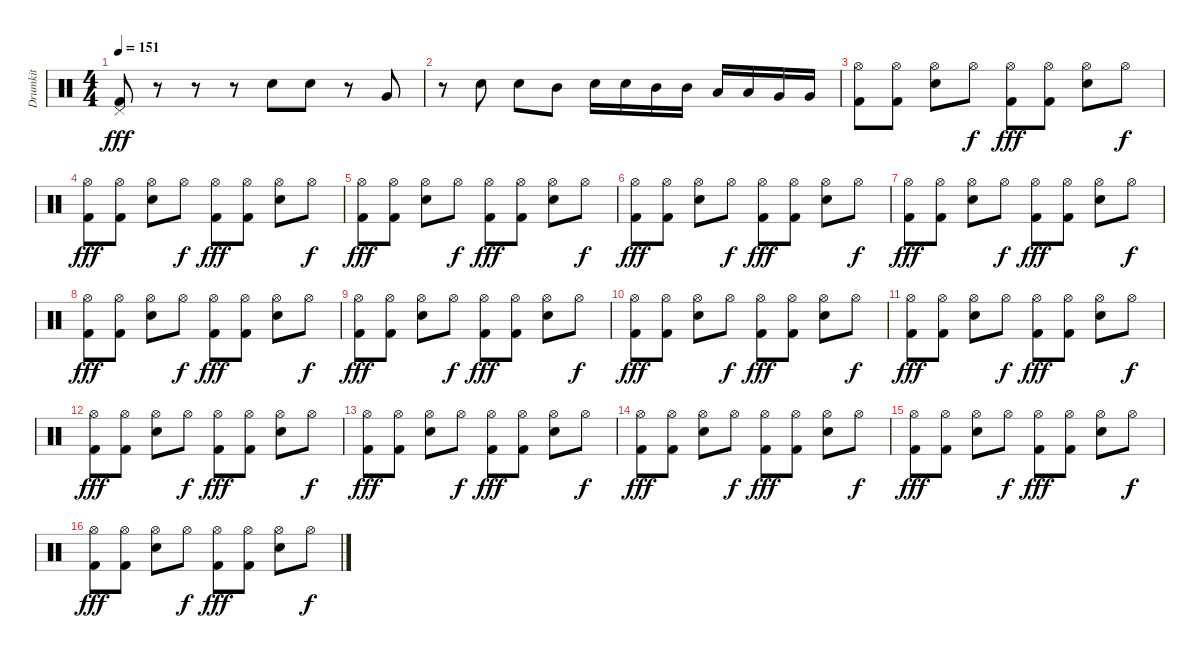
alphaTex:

\track ("Drumkit" "Drumkit") {instrument percussion}
\staff {score}
\articulation defaults
\ts (4 4)
\tempo 151
\clef neutral
\ks c
("Kick (hit) 2" "Pedal Hi-Hat (hit)").8{dy fff} r.8 r.8 r.8 "Electric Snare (hit)".8 "Electric Snare (hit)".8 r.8 "Very Low Tom (hit)".8 |
r.8 "Electric Snare (hit)".8 "Electric Snare (hit)".8 "Mid Tom (hit)".8 "Electric Snare (hit)".16 "Electric Snare (hit)".16 "Mid Tom (hit)".16 "Mid Tom (hit)".16 "Low Tom (hit)".16 "Low Tom (hit)".16 "Very Low Tom (hit)".16 "Very Low Tom (hit)".16 |
("Kick (hit) 2" "Hi-Hat (open)").8 ("Hi-Hat (open)" "Kick (hit) 2").8 ("Electric Snare (hit)" "Hi-Hat (open)").8 "Hi-Hat (open)".8{dy f} ("Kick (hit) 2" "Hi-Hat (open)").8{dy fff} ("Kick (hit) 2" "Hi-Hat (open)").8 ("Electric Snare (hit)" "Hi-Hat (open)").8 "Hi-Hat (open)".8{dy f} |
("Kick (hit) 2" "Hi-Hat (open)").8{dy fff} ("Hi-Hat (open)" "Kick (hit) 2").8 ("Electric Snare (hit)" "Hi-Hat (open)").8 "Hi-Hat (open)".8{dy f} ("Kick (hit) 2" "Hi-Hat (open)").8{dy fff} ("Kick (hit) 2" "Hi-Hat (open)").8 ("Electric Snare (hit)" "Hi-Hat (open)").8 "Hi-Hat (open)".8{dy f} |
("Kick (hit) 2" "Hi-Hat (open)").8{dy fff} ("Hi-Hat (open)" "Kick (hit) 2").8 ("Electric Snare (hit)" "Hi-Hat (open)").8 "Hi-Hat (open)".8{dy f} ("Kick (hit) 2" "Hi-Hat (open)").8{dy fff} ("Kick (hit) 2" "Hi-Hat (open)").8 ("Electric Snare (hit)" "Hi-Hat (open)").8 "Hi-Hat (open)".8{dy f} |
("Kick (hit) 2" "Hi-Hat (open)").8{dy fff} ("Hi-Hat (open)" "Kick (hit) 2").8 ("Electric Snare (hit)" "Hi-Hat (open)").8 "Hi-Hat (open)".8{dy f} ("Kick (hit) 2" "Hi-Hat (open)").8{dy fff} ("Kick (hit) 2" "Hi-Hat (open)").8 ("Electric Snare (hit)" "Hi-Hat (open)").8 "Hi-Hat (open)".8{dy f} |
("Kick (hit) 2" "Hi-Hat (open)").8{dy fff} ("Hi-Hat (open)" "Kick (hit) 2").8 ("Electric Snare (hit)" "Hi-Hat (open)").8 "Hi-Hat (open)".8{dy f} ("Kick (hit) 2" "Hi-Hat (open)").8{dy fff} ("Kick (hit) 2" "Hi-Hat (open)").8 ("Electric Snare (hit)" "Hi-Hat (open)").8 "Hi-Hat (open)".8{dy f} |
("Kick (hit) 2" "Hi-Hat (open)").8{dy fff} ("Hi-Hat (open)" "Kick (hit) 2").8 ("Electric Snare (hit)" "Hi-Hat (open)").8 "Hi-Hat (open)".8{dy f} ("Kick (hit) 2" "Hi-Hat (open)").8{dy fff} ("Kick (hit) 2" "Hi-Hat (open)").8 ("Electric Snare (hit)" "Hi-Hat (open)").8 "Hi-Hat (open)".8{dy f} |
("Kick (hit) 2" "Hi-Hat (open)").8{dy fff} ("Hi-Hat (open)" "Kick (hit) 2").8 ("Electric Snare (hit)" "Hi-Hat (open)").8 "Hi-Hat (open)".8{dy f} ("Kick (hit) 2" "Hi-Hat (open)").8{dy fff} ("Kick (hit) 2" "Hi-Hat (open)").8 ("Electric Snare (hit)" "Hi-Hat (open)").8 "Hi-Hat (open)".8{dy f} |
("Kick (hit) 2" "Hi-Hat (open)").8{dy fff} ("Hi-Hat (open)" "Kick (hit) 2").8 ("Electric Snare (hit)" "Hi-Hat (open)").8 "Hi-Hat (open)".8{dy f} ("Kick (hit) 2" "Hi-Hat (open)").8{dy fff} ("Kick (hit) 2" "Hi-Hat (open)").8 ("Electric Snare (hit)" "Hi-Hat (open)").8 "Hi-Hat (open)".8{dy f} |
("Kick (hit) 2" "Hi-Hat (open)").8{dy fff} ("Hi-Hat (open)" "Kick (hit) 2").8 ("Electric Snare (hit)" "Hi-Hat (open)").8 "Hi-Hat (open)".8{dy f} ("Kick (hit) 2" "Hi-Hat (open)").8{dy fff} ("Kick (hit) 2" "Hi-Hat (open)").8 ("Electric Snare (hit)" "Hi-Hat (open)").8 "Hi-Hat (open)".8{dy f} |
("Kick (hit) 2" "Hi-Hat (open)").8{dy fff} ("Hi-Hat (open)" "Kick (hit) 2").8 ("Electric Snare (hit)" "Hi-Hat (open)").8 "Hi-Hat (open)".8{dy f} ("Kick (hit) 2" "Hi-Hat (open)").8{dy fff} ("Kick (hit) 2" "Hi-Hat (open)").8 ("Electric Snare (hit)" "Hi-Hat (open)").8 "Hi-Hat (open)".8{dy f} |
("Kick (hit) 2" "Hi-Hat (open)").8{dy fff} ("Hi-Hat (open)" "Kick (hit) 2").8 ("Electric Snare (hit)" "Hi-Hat (open)").8 "Hi-Hat (open)".8{dy f} ("Kick (hit) 2" "Hi-Hat (open)").8{dy fff} ("Kick (hit) 2" "Hi-Hat (open)").8 ("Electric Snare (hit)" "Hi-Hat (open)").8 "Hi-Hat (open)".8{dy f} |
("Kick (hit) 2" "Hi-Hat (open)").8{dy fff} ("Hi-Hat (open)" "Kick (hit) 2").8 ("Electric Snare (hit)" "Hi-Hat (open)").8 "Hi-Hat (open)".8{dy f} ("Kick (hit) 2" "Hi-Hat (open)").8{dy fff} ("Kick (hit) 2" "Hi-Hat (open)").8 ("Electric Snare (hit)" "Hi-Hat (open)").8 "Hi-Hat (open)".8{dy f} |
("Kick (hit) 2" "Hi-Hat (open)").8{dy fff} ("Hi-Hat (open)" "Kick (hit) 2").8 ("Electric Snare (hit)" "Hi-Hat (open)").8 "Hi-Hat (open)".8{dy f} ("Kick (hit) 2" "Hi-Hat (open)").8{dy fff} ("Kick (hit) 2" "Hi-Hat (open)").8 ("Electric Snare (hit)" "Hi-Hat (open)").8 "Hi-Hat (open)".8{dy f} |
("Kick (hit) 2" "Hi-Hat (open)").8{dy fff} ("Hi-Hat (open)" "Kick (hit) 2").8 ("Electric Snare (hit)" "Hi-Hat (open)").8 "Hi-Hat (open)".8{dy f} ("Kick (hit) 2" "Hi-Hat (open)").8{dy fff} ("Kick (hit) 2" "Hi-Hat (open)").8 ("Electric Snare (hit)" "Hi-Hat (open)").8 "Hi-Hat (open)".8{dy f}
